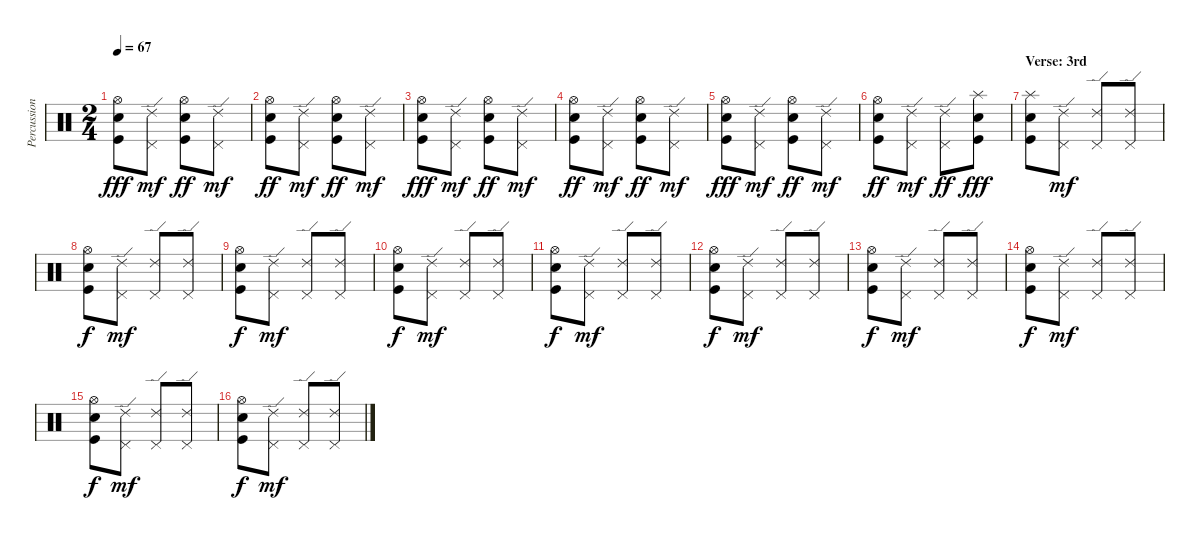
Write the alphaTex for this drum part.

\track ("Percussions" "Percussion") {instrument percussion}
\staff {score}
\articulation defaults
\ts (2 4)
\tempo 67
\clef neutral
\ks c
("Hi-Hat (open)" "Electric Snare (hit)" "Kick (hit)").8{dy fff} ("Ride (edge) 2" "Pedal Hi-Hat (hit)").8{dy mf} ("Hi-Hat (open)" "Snare (hit) 2" "Kick (hit)").8{dy ff} ("Ride (edge) 2" "Pedal Hi-Hat (hit)").8{dy mf} |
("Hi-Hat (open)" "Snare (hit) 2" "Kick (hit)").8{dy ff} ("Ride (edge) 2" "Pedal Hi-Hat (hit)").8{dy mf} ("Hi-Hat (open)" "Snare (hit) 2" "Kick (hit)").8{dy ff} ("Ride (edge) 2" "Pedal Hi-Hat (hit)").8{dy mf} |
("Hi-Hat (open)" "Electric Snare (hit)" "Kick (hit)").8{dy fff} ("Ride (edge) 2" "Pedal Hi-Hat (hit)").8{dy mf} ("Hi-Hat (open)" "Snare (hit) 2" "Kick (hit)").8{dy ff} ("Ride (edge) 2" "Pedal Hi-Hat (hit)").8{dy mf} |
("Hi-Hat (open)" "Snare (hit) 2" "Kick (hit)").8{dy ff} ("Ride (edge) 2" "Pedal Hi-Hat (hit)").8{dy mf} ("Hi-Hat (open)" "Snare (hit) 2" "Kick (hit)").8{dy ff} ("Ride (edge) 2" "Pedal Hi-Hat (hit)").8{dy mf} |
("Hi-Hat (open)" "Electric Snare (hit)" "Kick (hit)").8{dy fff} ("Ride (edge) 2" "Pedal Hi-Hat (hit)").8{dy mf} ("Hi-Hat (open)" "Snare (hit) 2" "Kick (hit)").8{dy ff} ("Ride (edge) 2" "Pedal Hi-Hat (hit)").8{dy mf} |
("Hi-Hat (open)" "Snare (hit) 2" "Kick (hit)").8{dy ff} ("Ride (edge) 2" "Pedal Hi-Hat (hit)").8{dy mf} ("Ride (edge) 2" "Pedal Hi-Hat (hit)").8{dy ff} ("Splash (hit)" "Snare (hit) 2" "Kick (hit)").8{dy fff} |
\section ("" "Verse: 3rd")
("Splash (hit)" "Snare (hit) 2" "Kick (hit)").8 ("Ride (edge) 2" "Pedal Hi-Hat (hit)").8{dy mf} ("Ride (edge) 2" "Pedal Hi-Hat (hit)").8 ("Ride (edge) 2" "Pedal Hi-Hat (hit)").8 |
("Hi-Hat (open)" "Snare (hit) 2" "Kick (hit)").8{dy f} ("Ride (edge) 2" "Pedal Hi-Hat (hit)").8{dy mf} ("Ride (edge) 2" "Pedal Hi-Hat (hit)").8 ("Ride (edge) 2" "Pedal Hi-Hat (hit)").8 |
("Hi-Hat (open)" "Snare (hit) 2" "Kick (hit)").8{dy f} ("Ride (edge) 2" "Pedal Hi-Hat (hit)").8{dy mf} ("Ride (edge) 2" "Pedal Hi-Hat (hit)").8 ("Ride (edge) 2" "Pedal Hi-Hat (hit)").8 |
("Hi-Hat (open)" "Snare (hit) 2" "Kick (hit)").8{dy f} ("Ride (edge) 2" "Pedal Hi-Hat (hit)").8{dy mf} ("Ride (edge) 2" "Pedal Hi-Hat (hit)").8 ("Ride (edge) 2" "Pedal Hi-Hat (hit)").8 |
("Hi-Hat (open)" "Snare (hit) 2" "Kick (hit)").8{dy f} ("Ride (edge) 2" "Pedal Hi-Hat (hit)").8{dy mf} ("Ride (edge) 2" "Pedal Hi-Hat (hit)").8 ("Ride (edge) 2" "Pedal Hi-Hat (hit)").8 |
("Hi-Hat (open)" "Snare (hit) 2" "Kick (hit)").8{dy f} ("Ride (edge) 2" "Pedal Hi-Hat (hit)").8{dy mf} ("Ride (edge) 2" "Pedal Hi-Hat (hit)").8 ("Ride (edge) 2" "Pedal Hi-Hat (hit)").8 |
("Hi-Hat (open)" "Snare (hit) 2" "Kick (hit)").8{dy f} ("Ride (edge) 2" "Pedal Hi-Hat (hit)").8{dy mf} ("Ride (edge) 2" "Pedal Hi-Hat (hit)").8 ("Ride (edge) 2" "Pedal Hi-Hat (hit)").8 |
("Hi-Hat (open)" "Snare (hit) 2" "Kick (hit)").8{dy f} ("Ride (edge) 2" "Pedal Hi-Hat (hit)").8{dy mf} ("Ride (edge) 2" "Pedal Hi-Hat (hit)").8 ("Ride (edge) 2" "Pedal Hi-Hat (hit)").8 |
("Hi-Hat (open)" "Snare (hit) 2" "Kick (hit)").8{dy f} ("Ride (edge) 2" "Pedal Hi-Hat (hit)").8{dy mf} ("Ride (edge) 2" "Pedal Hi-Hat (hit)").8 ("Ride (edge) 2" "Pedal Hi-Hat (hit)").8 |
("Hi-Hat (open)" "Snare (hit) 2" "Kick (hit)").8{dy f} ("Ride (edge) 2" "Pedal Hi-Hat (hit)").8{dy mf} ("Ride (edge) 2" "Pedal Hi-Hat (hit)").8 ("Ride (edge) 2" "Pedal Hi-Hat (hit)").8
